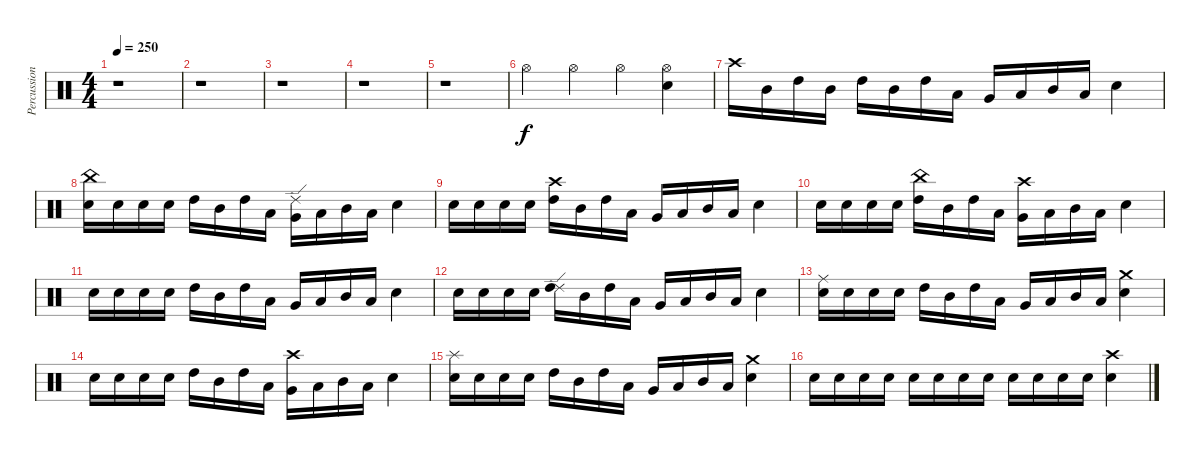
\track ("Percussion" "Percussion") {instrument percussion}
\staff {score}
\articulation defaults
\ts (4 4)
\tempo 250
\clef neutral
\ks c
r.1{dy f} |
r.1 |
r.1 |
r.1 |
r.1 |
"Hi-Hat (open)".4 "Hi-Hat (open)".4 "Hi-Hat (open)".4 ("Hi-Hat (open)" "Snare (hit) 2").4 |
"Crash high (hit)".16 "Mid Tom (hit)".16 "High Tom (hit)".16 "Mid Tom (hit)".16 "High Tom (hit)".16 "Mid Tom (hit)".16 "High Tom (hit)".16 "Low Tom (hit)".16 "Very Low Tom (hit)".16 "Low Floor Tom (hit)".16 "Mid Tom (hit)".16 "Low Floor Tom (hit)".16 "Snare (hit) 2".4 |
("China (hit)" "Snare (hit) 2").16 "Snare (hit) 2".16 "Snare (hit) 2".16 "Snare (hit) 2".16 "High Tom (hit)".16 "Mid Tom (hit)".16 "High Tom (hit)".16 "Low Tom (hit)".16 ("Ride (edge) 2" "Very Low Tom (hit)").16 "Low Floor Tom (hit)".16 "Mid Tom (hit)".16 "Low Floor Tom (hit)".16 "Snare (hit) 2".4 |
"Snare (hit) 2".16 "Snare (hit) 2".16 "Snare (hit) 2".16 "Snare (hit) 2".16 ("Crash high (hit)" "High Tom (hit)").16 "Mid Tom (hit)".16 "High Tom (hit)".16 "Low Tom (hit)".16 "Very Low Tom (hit)".16 "Low Floor Tom (hit)".16 "Mid Tom (hit)".16 "Low Floor Tom (hit)".16 "Snare (hit) 2".4 |
"Snare (hit) 2".16 "Snare (hit) 2".16 "Snare (hit) 2".16 "Snare (hit) 2".16 ("China (hit)" "High Tom (hit)").16 "Mid Tom (hit)".16 "High Tom (hit)".16 "Low Tom (hit)".16 ("Crash high (hit)" "Very Low Tom (hit)").16 "Low Floor Tom (hit)".16 "Mid Tom (hit)".16 "Low Floor Tom (hit)".16 "Snare (hit) 2".4 |
"Snare (hit) 2".16 "Snare (hit) 2".16 "Snare (hit) 2".16 "Snare (hit) 2".16 "High Tom (hit)".16 "Mid Tom (hit)".16 "High Tom (hit)".16 "Low Tom (hit)".16 "Very Low Tom (hit)".16 "Low Floor Tom (hit)".16 "Mid Tom (hit)".16 "Low Floor Tom (hit)".16 "Snare (hit) 2".4 |
"Snare (hit) 2".16 "Snare (hit) 2".16 "Snare (hit) 2".16 "Snare (hit) 2".16 ("Ride (edge) 2" "High Tom (hit)").16 "Mid Tom (hit)".16 "High Tom (hit)".16 "Low Tom (hit)".16 "Very Low Tom (hit)".16 "Low Floor Tom (hit)".16 "Mid Tom (hit)".16 "Low Floor Tom (hit)".16 "Snare (hit) 2".4 |
("Ride (middle)" "Snare (hit) 2").16 "Snare (hit) 2".16 "Snare (hit) 2".16 "Snare (hit) 2".16 "High Tom (hit)".16 "Mid Tom (hit)".16 "High Tom (hit)".16 "Low Tom (hit)".16 "Very Low Tom (hit)".16 "Low Floor Tom (hit)".16 "Mid Tom (hit)".16 "Low Floor Tom (hit)".16 ("Crash medium (hit)" "Snare (hit) 2").4 |
"Snare (hit) 2".16 "Snare (hit) 2".16 "Snare (hit) 2".16 "Snare (hit) 2".16 "High Tom (hit)".16 "Mid Tom (hit)".16 "High Tom (hit)".16 "Low Tom (hit)".16 ("Crash high (hit)" "Very Low Tom (hit)").16 "Low Floor Tom (hit)".16 "Mid Tom (hit)".16 "Low Floor Tom (hit)".16 "Snare (hit) 2".4 |
("Splash (hit)" "Snare (hit) 2").16 "Snare (hit) 2".16 "Snare (hit) 2".16 "Snare (hit) 2".16 "High Tom (hit)".16 "Mid Tom (hit)".16 "High Tom (hit)".16 "Low Tom (hit)".16 "Very Low Tom (hit)".16 "Low Floor Tom (hit)".16 "Mid Tom (hit)".16 "Low Floor Tom (hit)".16 ("Crash medium (hit)" "Snare (hit) 2").4 |
"Snare (hit) 2".16 "Snare (hit) 2".16 "Snare (hit) 2".16 "Snare (hit) 2".16 "Snare (hit) 2".16 "Snare (hit) 2".16 "Snare (hit) 2".16 "Snare (hit) 2".16 "Snare (hit) 2".16 "Snare (hit) 2".16 "Snare (hit) 2".16 "Snare (hit) 2".16 ("Crash high (hit)" "Snare (hit) 2").4
